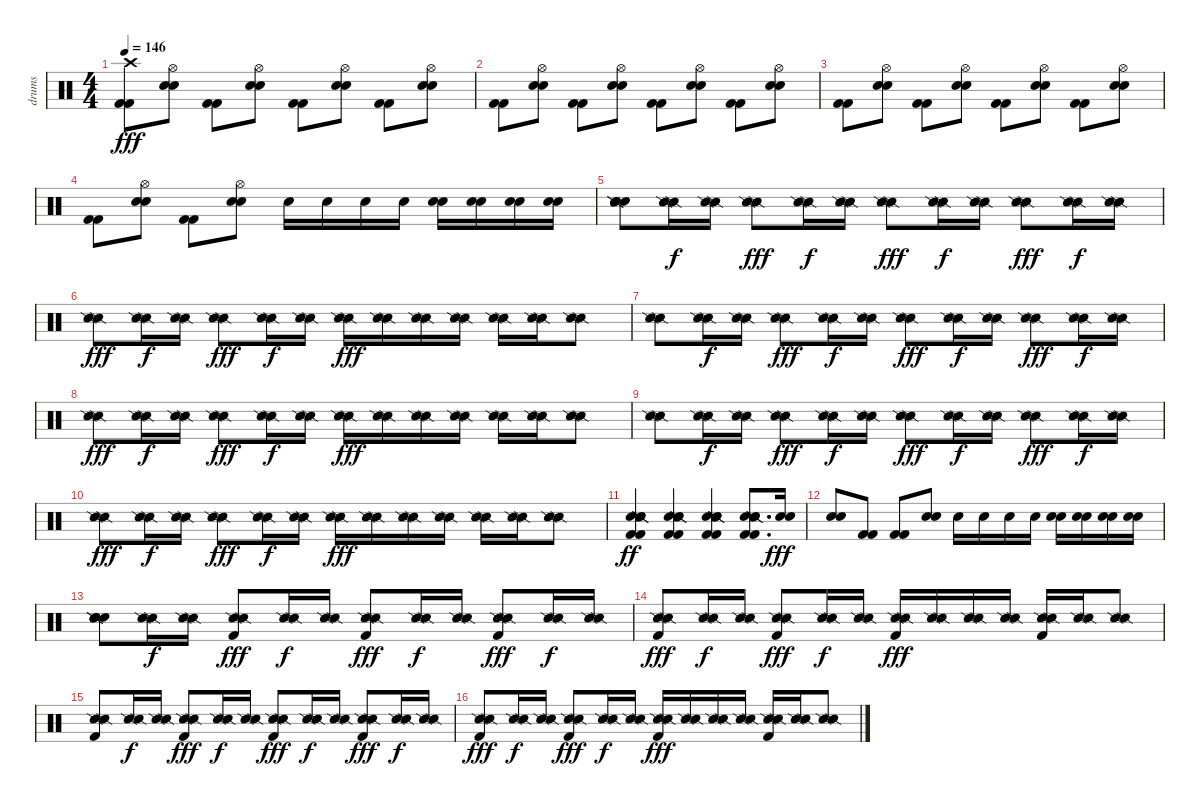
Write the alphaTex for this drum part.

\track ("drums" "drums") {instrument percussion}
\staff {score}
\articulation defaults
\ts (4 4)
\tempo 146
\clef neutral
\ks c
("Crash high (hit)" "Kick (hit) 2" "Kick (hit) 2").8{dy fff} ("Hi-Hat (open)" "Electric Snare (hit)" "Electric Snare (hit)").8 ("Kick (hit) 2" "Kick (hit) 2").8 ("Hi-Hat (open)" "Electric Snare (hit)" "Electric Snare (hit)").8 ("Kick (hit) 2" "Kick (hit) 2").8 ("Hi-Hat (open)" "Electric Snare (hit)" "Electric Snare (hit)").8 ("Kick (hit) 2" "Kick (hit) 2").8 ("Hi-Hat (open)" "Electric Snare (hit)" "Electric Snare (hit)").8 |
("Kick (hit) 2" "Kick (hit) 2").8 ("Hi-Hat (open)" "Electric Snare (hit)" "Electric Snare (hit)").8 ("Kick (hit) 2" "Kick (hit) 2").8 ("Hi-Hat (open)" "Electric Snare (hit)" "Electric Snare (hit)").8 ("Kick (hit) 2" "Kick (hit) 2").8 ("Hi-Hat (open)" "Electric Snare (hit)" "Electric Snare (hit)").8 ("Kick (hit) 2" "Kick (hit) 2").8 ("Hi-Hat (open)" "Electric Snare (hit)" "Electric Snare (hit)").8 |
("Kick (hit) 2" "Kick (hit) 2").8 ("Hi-Hat (open)" "Electric Snare (hit)" "Electric Snare (hit)").8 ("Kick (hit) 2" "Kick (hit) 2").8 ("Hi-Hat (open)" "Electric Snare (hit)" "Electric Snare (hit)").8 ("Kick (hit) 2" "Kick (hit) 2").8 ("Hi-Hat (open)" "Electric Snare (hit)" "Electric Snare (hit)").8 ("Kick (hit) 2" "Kick (hit) 2").8 ("Hi-Hat (open)" "Electric Snare (hit)" "Electric Snare (hit)").8 |
("Kick (hit) 2" "Kick (hit) 2").8 ("Hi-Hat (open)" "Electric Snare (hit)" "Electric Snare (hit)").8 ("Kick (hit) 2" "Kick (hit) 2").8 ("Hi-Hat (open)" "Electric Snare (hit)" "Electric Snare (hit)").8 "Electric Snare (hit)".16 "Electric Snare (hit)".16 "Electric Snare (hit)".16 "Electric Snare (hit)".16 ("Electric Snare (hit)" "Electric Snare (hit)").16 ("Electric Snare (hit)" "Electric Snare (hit)").16 ("Electric Snare (hit)" "Electric Snare (hit)").16 ("Electric Snare (hit)" "Electric Snare (hit)").16 |
("Electric Snare (hit)" "Electric Snare (hit)" "Snare (side stick) 2" "Snare (side stick) 2" "Electric Snare (hit)").8 ("Snare (side stick) 2" "Snare (side stick) 2").16{dy f} ("Snare (side stick) 2" "Snare (side stick) 2").16 ("Snare (side stick) 2" "Snare (side stick) 2").8{dy fff} ("Snare (side stick) 2" "Snare (side stick) 2").16{dy f} ("Snare (side stick) 2" "Snare (side stick) 2").16 ("Snare (side stick) 2" "Snare (side stick) 2").8{dy fff} ("Snare (side stick) 2" "Snare (side stick) 2").16{dy f} ("Snare (side stick) 2" "Snare (side stick) 2").16 ("Snare (side stick) 2" "Snare (side stick) 2").8{dy fff} ("Snare (side stick) 2" "Snare (side stick) 2").16{dy f} ("Snare (side stick) 2" "Snare (side stick) 2").16 |
("Snare (side stick) 2" "Snare (side stick) 2").8{dy fff} ("Snare (side stick) 2" "Snare (side stick) 2").16{dy f} ("Snare (side stick) 2" "Snare (side stick) 2").16 ("Snare (side stick) 2" "Snare (side stick) 2").8{dy fff} ("Snare (side stick) 2" "Snare (side stick) 2").16{dy f} ("Snare (side stick) 2" "Snare (side stick) 2").16 ("Snare (side stick) 2" "Snare (side stick) 2").16{dy fff} ("Snare (side stick) 2" "Snare (side stick) 2").16 ("Snare (side stick) 2" "Snare (side stick) 2").16 ("Snare (side stick) 2" "Snare (side stick) 2").16 ("Snare (side stick) 2" "Snare (side stick) 2").16 ("Snare (side stick) 2" "Snare (side stick) 2").16 ("Snare (side stick) 2" "Snare (side stick) 2").8 |
("Snare (side stick) 2" "Snare (side stick) 2").8 ("Snare (side stick) 2" "Snare (side stick) 2").16{dy f} ("Snare (side stick) 2" "Snare (side stick) 2").16 ("Snare (side stick) 2" "Snare (side stick) 2").8{dy fff} ("Snare (side stick) 2" "Snare (side stick) 2").16{dy f} ("Snare (side stick) 2" "Snare (side stick) 2").16 ("Snare (side stick) 2" "Snare (side stick) 2").8{dy fff} ("Snare (side stick) 2" "Snare (side stick) 2").16{dy f} ("Snare (side stick) 2" "Snare (side stick) 2").16 ("Snare (side stick) 2" "Snare (side stick) 2").8{dy fff} ("Snare (side stick) 2" "Snare (side stick) 2").16{dy f} ("Snare (side stick) 2" "Snare (side stick) 2").16 |
("Snare (side stick) 2" "Snare (side stick) 2").8{dy fff} ("Snare (side stick) 2" "Snare (side stick) 2").16{dy f} ("Snare (side stick) 2" "Snare (side stick) 2").16 ("Snare (side stick) 2" "Snare (side stick) 2").8{dy fff} ("Snare (side stick) 2" "Snare (side stick) 2").16{dy f} ("Snare (side stick) 2" "Snare (side stick) 2").16 ("Snare (side stick) 2" "Snare (side stick) 2").16{dy fff} ("Snare (side stick) 2" "Snare (side stick) 2").16 ("Snare (side stick) 2" "Snare (side stick) 2").16 ("Snare (side stick) 2" "Snare (side stick) 2").16 ("Snare (side stick) 2" "Snare (side stick) 2").16 ("Snare (side stick) 2" "Snare (side stick) 2").16 ("Snare (side stick) 2" "Snare (side stick) 2").8 |
("Snare (side stick) 2" "Snare (side stick) 2").8 ("Snare (side stick) 2" "Snare (side stick) 2").16{dy f} ("Snare (side stick) 2" "Snare (side stick) 2").16 ("Snare (side stick) 2" "Snare (side stick) 2").8{dy fff} ("Snare (side stick) 2" "Snare (side stick) 2").16{dy f} ("Snare (side stick) 2" "Snare (side stick) 2").16 ("Snare (side stick) 2" "Snare (side stick) 2").8{dy fff} ("Snare (side stick) 2" "Snare (side stick) 2").16{dy f} ("Snare (side stick) 2" "Snare (side stick) 2").16 ("Snare (side stick) 2" "Snare (side stick) 2").8{dy fff} ("Snare (side stick) 2" "Snare (side stick) 2").16{dy f} ("Snare (side stick) 2" "Snare (side stick) 2").16 |
("Snare (side stick) 2" "Snare (side stick) 2").8{dy fff} ("Snare (side stick) 2" "Snare (side stick) 2").16{dy f} ("Snare (side stick) 2" "Snare (side stick) 2").16 ("Snare (side stick) 2" "Snare (side stick) 2").8{dy fff} ("Snare (side stick) 2" "Snare (side stick) 2").16{dy f} ("Snare (side stick) 2" "Snare (side stick) 2").16 ("Snare (side stick) 2" "Snare (side stick) 2").16{dy fff} ("Snare (side stick) 2" "Snare (side stick) 2").16 ("Snare (side stick) 2" "Snare (side stick) 2").16 ("Snare (side stick) 2" "Snare (side stick) 2").16 ("Snare (side stick) 2" "Snare (side stick) 2").16 ("Snare (side stick) 2" "Snare (side stick) 2").16 ("Snare (side stick) 2" "Snare (side stick) 2").8 |
("Electric Snare (hit)" "Electric Snare (hit)" "Snare (side stick) 2" "Snare (side stick) 2" "Kick (hit) 2" "Kick (hit) 2").4{dy ff} ("Electric Snare (hit)" "Electric Snare (hit)" "Snare (side stick) 2" "Snare (side stick) 2" "Kick (hit) 2" "Kick (hit) 2").4 ("Electric Snare (hit)" "Electric Snare (hit)" "Snare (side stick) 2" "Snare (side stick) 2" "Kick (hit) 2" "Kick (hit) 2").4 ("Electric Snare (hit)" "Electric Snare (hit)" "Snare (side stick) 2" "Snare (side stick) 2" "Kick (hit) 2" "Kick (hit) 2").8{d} ("Electric Snare (hit)" "Electric Snare (hit)").16{dy fff} |
("Electric Snare (hit)" "Electric Snare (hit)").8 ("Kick (hit) 2" "Kick (hit) 2").8 ("Kick (hit) 2" "Kick (hit) 2").8 ("Electric Snare (hit)" "Electric Snare (hit)").8 "Electric Snare (hit)".16 "Electric Snare (hit)".16 "Electric Snare (hit)".16 "Electric Snare (hit)".16 ("Electric Snare (hit)" "Electric Snare (hit)").16 ("Electric Snare (hit)" "Electric Snare (hit)").16 ("Electric Snare (hit)" "Electric Snare (hit)").16 ("Electric Snare (hit)" "Electric Snare (hit)").16 |
("Electric Snare (hit)" "Electric Snare (hit)" "Snare (side stick) 2" "Snare (side stick) 2" "Electric Snare (hit)").8 ("Snare (side stick) 2" "Snare (side stick) 2").16{dy f} ("Snare (side stick) 2" "Snare (side stick) 2").16 ("Snare (side stick) 2" "Snare (side stick) 2" "Kick (hit) 2").8{dy fff} ("Snare (side stick) 2" "Snare (side stick) 2").16{dy f} ("Snare (side stick) 2" "Snare (side stick) 2").16 ("Snare (side stick) 2" "Snare (side stick) 2" "Kick (hit) 2").8{dy fff} ("Snare (side stick) 2" "Snare (side stick) 2").16{dy f} ("Snare (side stick) 2" "Snare (side stick) 2").16 ("Snare (side stick) 2" "Snare (side stick) 2" "Kick (hit) 2").8{dy fff} ("Snare (side stick) 2" "Snare (side stick) 2").16{dy f} ("Snare (side stick) 2" "Snare (side stick) 2").16 |
("Snare (side stick) 2" "Snare (side stick) 2" "Kick (hit) 2").8{dy fff} ("Snare (side stick) 2" "Snare (side stick) 2").16{dy f} ("Snare (side stick) 2" "Snare (side stick) 2").16 ("Snare (side stick) 2" "Snare (side stick) 2" "Kick (hit) 2").8{dy fff} ("Snare (side stick) 2" "Snare (side stick) 2").16{dy f} ("Snare (side stick) 2" "Snare (side stick) 2").16 ("Snare (side stick) 2" "Snare (side stick) 2" "Kick (hit) 2").16{dy fff} ("Snare (side stick) 2" "Snare (side stick) 2").16 ("Snare (side stick) 2" "Snare (side stick) 2").16 ("Snare (side stick) 2" "Snare (side stick) 2").16 ("Snare (side stick) 2" "Snare (side stick) 2" "Kick (hit) 2").16 ("Snare (side stick) 2" "Snare (side stick) 2").16 ("Snare (side stick) 2" "Snare (side stick) 2").8 |
("Snare (side stick) 2" "Snare (side stick) 2" "Kick (hit) 2").8 ("Snare (side stick) 2" "Snare (side stick) 2").16{dy f} ("Snare (side stick) 2" "Snare (side stick) 2").16 ("Snare (side stick) 2" "Snare (side stick) 2" "Kick (hit) 2").8{dy fff} ("Snare (side stick) 2" "Snare (side stick) 2").16{dy f} ("Snare (side stick) 2" "Snare (side stick) 2").16 ("Snare (side stick) 2" "Snare (side stick) 2" "Kick (hit) 2").8{dy fff} ("Snare (side stick) 2" "Snare (side stick) 2").16{dy f} ("Snare (side stick) 2" "Snare (side stick) 2").16 ("Snare (side stick) 2" "Snare (side stick) 2" "Kick (hit) 2").8{dy fff} ("Snare (side stick) 2" "Snare (side stick) 2").16{dy f} ("Snare (side stick) 2" "Snare (side stick) 2").16 |
("Snare (side stick) 2" "Snare (side stick) 2" "Kick (hit) 2").8{dy fff} ("Snare (side stick) 2" "Snare (side stick) 2").16{dy f} ("Snare (side stick) 2" "Snare (side stick) 2").16 ("Snare (side stick) 2" "Snare (side stick) 2" "Kick (hit) 2").8{dy fff} ("Snare (side stick) 2" "Snare (side stick) 2").16{dy f} ("Snare (side stick) 2" "Snare (side stick) 2").16 ("Snare (side stick) 2" "Snare (side stick) 2" "Kick (hit) 2").16{dy fff} ("Snare (side stick) 2" "Snare (side stick) 2").16 ("Snare (side stick) 2" "Snare (side stick) 2").16 ("Snare (side stick) 2" "Snare (side stick) 2").16 ("Snare (side stick) 2" "Snare (side stick) 2" "Kick (hit) 2").16 ("Snare (side stick) 2" "Snare (side stick) 2").16 ("Snare (side stick) 2" "Snare (side stick) 2").8
